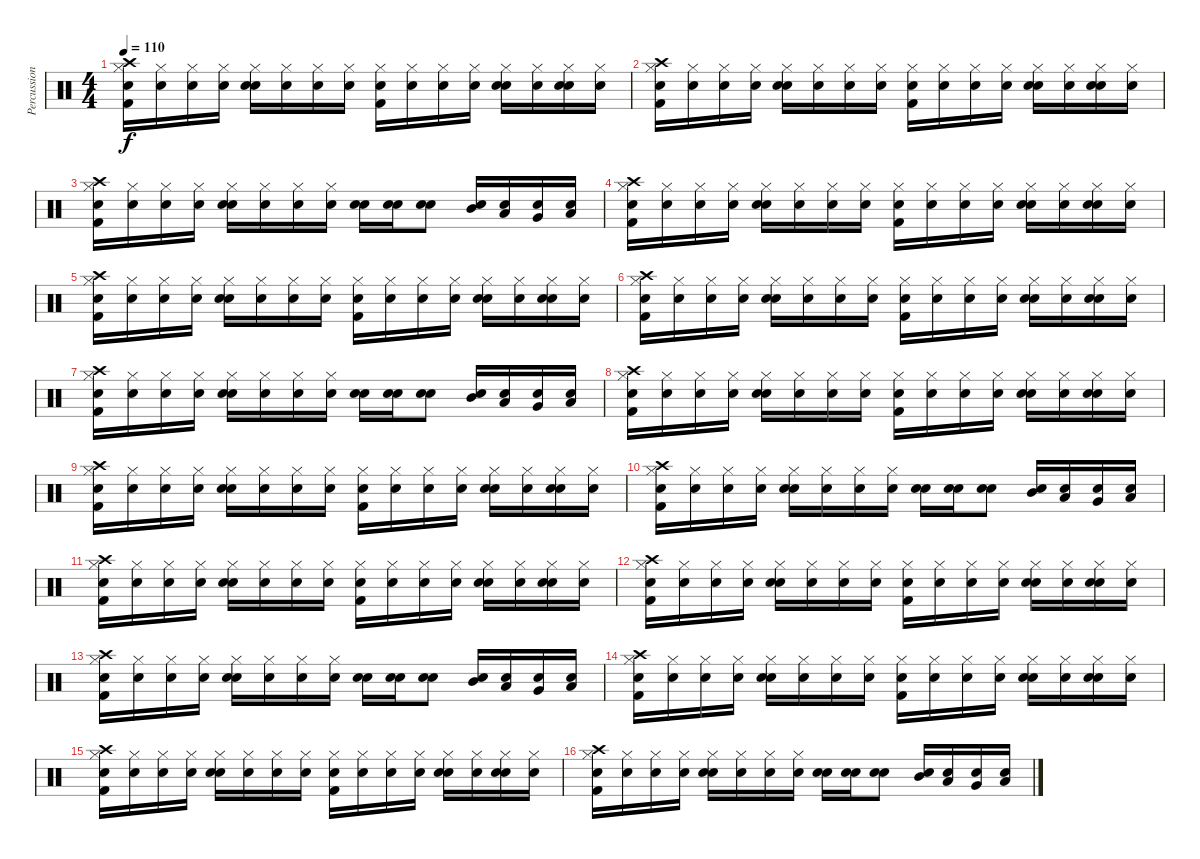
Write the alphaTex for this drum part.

\track ("Percussion" "Percussion") {instrument percussion}
\staff {score}
\articulation defaults
\ts (4 4)
\tempo 110
\clef neutral
\ks c
("Snare (hit)" "Kick (hit) 2" "Hi-Hat (closed)" "Crash high (hit)").16{dy f} ("Snare (hit)" "Hi-Hat (closed)").16 ("Snare (hit)" "Hi-Hat (closed)").16 ("Snare (hit)" "Hi-Hat (closed)").16 ("Snare (hit)" "Snare (hit) 2" "Hi-Hat (closed)").16 ("Snare (hit)" "Hi-Hat (closed)").16 ("Snare (hit)" "Hi-Hat (closed)").16 ("Snare (hit)" "Hi-Hat (closed)").16 ("Snare (hit)" "Kick (hit) 2" "Hi-Hat (closed)").16 ("Snare (hit)" "Hi-Hat (closed)").16 ("Snare (hit)" "Hi-Hat (closed)").16 ("Snare (hit)" "Hi-Hat (closed)").16 ("Snare (hit)" "Snare (hit) 2" "Hi-Hat (closed)").16 ("Snare (hit)" "Hi-Hat (closed)").16 ("Snare (hit)" "Snare (hit) 2" "Hi-Hat (closed)").16 ("Snare (hit)" "Hi-Hat (closed)").16 |
("Snare (hit)" "Kick (hit) 2" "Hi-Hat (closed)" "Crash high (hit)").16 ("Snare (hit)" "Hi-Hat (closed)").16 ("Snare (hit)" "Hi-Hat (closed)").16 ("Snare (hit)" "Hi-Hat (closed)").16 ("Snare (hit)" "Snare (hit) 2" "Hi-Hat (closed)").16 ("Snare (hit)" "Hi-Hat (closed)").16 ("Snare (hit)" "Hi-Hat (closed)").16 ("Snare (hit)" "Hi-Hat (closed)").16 ("Snare (hit)" "Kick (hit) 2" "Hi-Hat (closed)").16 ("Snare (hit)" "Hi-Hat (closed)").16 ("Snare (hit)" "Hi-Hat (closed)").16 ("Snare (hit)" "Hi-Hat (closed)").16 ("Snare (hit)" "Snare (hit) 2" "Hi-Hat (closed)").16 ("Snare (hit)" "Hi-Hat (closed)").16 ("Snare (hit)" "Snare (hit) 2" "Hi-Hat (closed)").16 ("Snare (hit)" "Hi-Hat (closed)").16 |
("Snare (hit)" "Kick (hit) 2" "Hi-Hat (closed)" "Crash high (hit)").16 ("Snare (hit)" "Hi-Hat (closed)").16 ("Snare (hit)" "Hi-Hat (closed)").16 ("Snare (hit)" "Hi-Hat (closed)").16 ("Snare (hit)" "Snare (hit) 2" "Hi-Hat (closed)").16 ("Snare (hit)" "Hi-Hat (closed)").16 ("Snare (hit)" "Hi-Hat (closed)").16 ("Snare (hit)" "Hi-Hat (closed)").16 ("Snare (hit)" "Snare (hit) 2").16 ("Snare (hit)" "Snare (hit) 2").16 ("Snare (hit)" "Snare (hit) 2").8 ("Snare (hit)" "Mid Tom (hit)").16 ("Snare (hit)" "Low Tom (hit)").16 ("Snare (hit)" "Very Low Tom (hit)").16 ("Snare (hit)" "Low Floor Tom (hit)").16 |
("Snare (hit)" "Kick (hit) 2" "Hi-Hat (closed)" "Crash high (hit)").16 ("Snare (hit)" "Hi-Hat (closed)").16 ("Snare (hit)" "Hi-Hat (closed)").16 ("Snare (hit)" "Hi-Hat (closed)").16 ("Snare (hit)" "Snare (hit) 2" "Hi-Hat (closed)").16 ("Snare (hit)" "Hi-Hat (closed)").16 ("Snare (hit)" "Hi-Hat (closed)").16 ("Snare (hit)" "Hi-Hat (closed)").16 ("Snare (hit)" "Kick (hit) 2" "Hi-Hat (closed)").16 ("Snare (hit)" "Hi-Hat (closed)").16 ("Snare (hit)" "Hi-Hat (closed)").16 ("Snare (hit)" "Hi-Hat (closed)").16 ("Snare (hit)" "Snare (hit) 2" "Hi-Hat (closed)").16 ("Snare (hit)" "Hi-Hat (closed)").16 ("Snare (hit)" "Snare (hit) 2" "Hi-Hat (closed)").16 ("Snare (hit)" "Hi-Hat (closed)").16 |
("Snare (hit)" "Kick (hit) 2" "Hi-Hat (closed)" "Crash high (hit)").16 ("Snare (hit)" "Hi-Hat (closed)").16 ("Snare (hit)" "Hi-Hat (closed)").16 ("Snare (hit)" "Hi-Hat (closed)").16 ("Snare (hit)" "Snare (hit) 2" "Hi-Hat (closed)").16 ("Snare (hit)" "Hi-Hat (closed)").16 ("Snare (hit)" "Hi-Hat (closed)").16 ("Snare (hit)" "Hi-Hat (closed)").16 ("Snare (hit)" "Kick (hit) 2" "Hi-Hat (closed)").16 ("Snare (hit)" "Hi-Hat (closed)").16 ("Snare (hit)" "Hi-Hat (closed)").16 ("Snare (hit)" "Hi-Hat (closed)").16 ("Snare (hit)" "Snare (hit) 2" "Hi-Hat (closed)").16 ("Snare (hit)" "Hi-Hat (closed)").16 ("Snare (hit)" "Snare (hit) 2" "Hi-Hat (closed)").16 ("Snare (hit)" "Hi-Hat (closed)").16 |
("Snare (hit)" "Kick (hit) 2" "Hi-Hat (closed)" "Crash high (hit)").16 ("Snare (hit)" "Hi-Hat (closed)").16 ("Snare (hit)" "Hi-Hat (closed)").16 ("Snare (hit)" "Hi-Hat (closed)").16 ("Snare (hit)" "Snare (hit) 2" "Hi-Hat (closed)").16 ("Snare (hit)" "Hi-Hat (closed)").16 ("Snare (hit)" "Hi-Hat (closed)").16 ("Snare (hit)" "Hi-Hat (closed)").16 ("Snare (hit)" "Kick (hit) 2" "Hi-Hat (closed)").16 ("Snare (hit)" "Hi-Hat (closed)").16 ("Snare (hit)" "Hi-Hat (closed)").16 ("Snare (hit)" "Hi-Hat (closed)").16 ("Snare (hit)" "Snare (hit) 2" "Hi-Hat (closed)").16 ("Snare (hit)" "Hi-Hat (closed)").16 ("Snare (hit)" "Snare (hit) 2" "Hi-Hat (closed)").16 ("Snare (hit)" "Hi-Hat (closed)").16 |
("Snare (hit)" "Kick (hit) 2" "Hi-Hat (closed)" "Crash high (hit)").16 ("Snare (hit)" "Hi-Hat (closed)").16 ("Snare (hit)" "Hi-Hat (closed)").16 ("Snare (hit)" "Hi-Hat (closed)").16 ("Snare (hit)" "Snare (hit) 2" "Hi-Hat (closed)").16 ("Snare (hit)" "Hi-Hat (closed)").16 ("Snare (hit)" "Hi-Hat (closed)").16 ("Snare (hit)" "Hi-Hat (closed)").16 ("Snare (hit)" "Snare (hit) 2").16 ("Snare (hit)" "Snare (hit) 2").16 ("Snare (hit)" "Snare (hit) 2").8 ("Snare (hit)" "Mid Tom (hit)").16 ("Snare (hit)" "Low Tom (hit)").16 ("Snare (hit)" "Very Low Tom (hit)").16 ("Snare (hit)" "Low Floor Tom (hit)").16 |
("Snare (hit)" "Kick (hit) 2" "Hi-Hat (closed)" "Crash high (hit)").16 ("Snare (hit)" "Hi-Hat (closed)").16 ("Snare (hit)" "Hi-Hat (closed)").16 ("Snare (hit)" "Hi-Hat (closed)").16 ("Snare (hit)" "Snare (hit) 2" "Hi-Hat (closed)").16 ("Snare (hit)" "Hi-Hat (closed)").16 ("Snare (hit)" "Hi-Hat (closed)").16 ("Snare (hit)" "Hi-Hat (closed)").16 ("Snare (hit)" "Kick (hit) 2" "Hi-Hat (closed)").16 ("Snare (hit)" "Hi-Hat (closed)").16 ("Snare (hit)" "Hi-Hat (closed)").16 ("Snare (hit)" "Hi-Hat (closed)").16 ("Snare (hit)" "Snare (hit) 2" "Hi-Hat (closed)").16 ("Snare (hit)" "Hi-Hat (closed)").16 ("Snare (hit)" "Snare (hit) 2" "Hi-Hat (closed)").16 ("Snare (hit)" "Hi-Hat (closed)").16 |
("Snare (hit)" "Kick (hit) 2" "Hi-Hat (closed)" "Crash high (hit)").16 ("Snare (hit)" "Hi-Hat (closed)").16 ("Snare (hit)" "Hi-Hat (closed)").16 ("Snare (hit)" "Hi-Hat (closed)").16 ("Snare (hit)" "Snare (hit) 2" "Hi-Hat (closed)").16 ("Snare (hit)" "Hi-Hat (closed)").16 ("Snare (hit)" "Hi-Hat (closed)").16 ("Snare (hit)" "Hi-Hat (closed)").16 ("Snare (hit)" "Kick (hit) 2" "Hi-Hat (closed)").16 ("Snare (hit)" "Hi-Hat (closed)").16 ("Snare (hit)" "Hi-Hat (closed)").16 ("Snare (hit)" "Hi-Hat (closed)").16 ("Snare (hit)" "Snare (hit) 2" "Hi-Hat (closed)").16 ("Snare (hit)" "Hi-Hat (closed)").16 ("Snare (hit)" "Snare (hit) 2" "Hi-Hat (closed)").16 ("Snare (hit)" "Hi-Hat (closed)").16 |
("Snare (hit)" "Kick (hit) 2" "Hi-Hat (closed)" "Crash high (hit)").16 ("Snare (hit)" "Hi-Hat (closed)").16 ("Snare (hit)" "Hi-Hat (closed)").16 ("Snare (hit)" "Hi-Hat (closed)").16 ("Snare (hit)" "Snare (hit) 2" "Hi-Hat (closed)").16 ("Snare (hit)" "Hi-Hat (closed)").16 ("Snare (hit)" "Hi-Hat (closed)").16 ("Snare (hit)" "Hi-Hat (closed)").16 ("Snare (hit)" "Snare (hit) 2").16 ("Snare (hit)" "Snare (hit) 2").16 ("Snare (hit)" "Snare (hit) 2").8 ("Snare (hit)" "Mid Tom (hit)").16 ("Snare (hit)" "Low Tom (hit)").16 ("Snare (hit)" "Very Low Tom (hit)").16 ("Snare (hit)" "Low Floor Tom (hit)").16 |
("Snare (hit)" "Kick (hit) 2" "Hi-Hat (closed)" "Crash high (hit)").16 ("Snare (hit)" "Hi-Hat (closed)").16 ("Snare (hit)" "Hi-Hat (closed)").16 ("Snare (hit)" "Hi-Hat (closed)").16 ("Snare (hit)" "Snare (hit) 2" "Hi-Hat (closed)").16 ("Snare (hit)" "Hi-Hat (closed)").16 ("Snare (hit)" "Hi-Hat (closed)").16 ("Snare (hit)" "Hi-Hat (closed)").16 ("Snare (hit)" "Kick (hit) 2" "Hi-Hat (closed)").16 ("Snare (hit)" "Hi-Hat (closed)").16 ("Snare (hit)" "Hi-Hat (closed)").16 ("Snare (hit)" "Hi-Hat (closed)").16 ("Snare (hit)" "Snare (hit) 2" "Hi-Hat (closed)").16 ("Snare (hit)" "Hi-Hat (closed)").16 ("Snare (hit)" "Snare (hit) 2" "Hi-Hat (closed)").16 ("Snare (hit)" "Hi-Hat (closed)").16 |
("Snare (hit)" "Kick (hit) 2" "Hi-Hat (closed)" "Crash high (hit)").16 ("Snare (hit)" "Hi-Hat (closed)").16 ("Snare (hit)" "Hi-Hat (closed)").16 ("Snare (hit)" "Hi-Hat (closed)").16 ("Snare (hit)" "Snare (hit) 2" "Hi-Hat (closed)").16 ("Snare (hit)" "Hi-Hat (closed)").16 ("Snare (hit)" "Hi-Hat (closed)").16 ("Snare (hit)" "Hi-Hat (closed)").16 ("Snare (hit)" "Kick (hit) 2" "Hi-Hat (closed)").16 ("Snare (hit)" "Hi-Hat (closed)").16 ("Snare (hit)" "Hi-Hat (closed)").16 ("Snare (hit)" "Hi-Hat (closed)").16 ("Snare (hit)" "Snare (hit) 2" "Hi-Hat (closed)").16 ("Snare (hit)" "Hi-Hat (closed)").16 ("Snare (hit)" "Snare (hit) 2" "Hi-Hat (closed)").16 ("Snare (hit)" "Hi-Hat (closed)").16 |
("Snare (hit)" "Kick (hit) 2" "Hi-Hat (closed)" "Crash high (hit)").16 ("Snare (hit)" "Hi-Hat (closed)").16 ("Snare (hit)" "Hi-Hat (closed)").16 ("Snare (hit)" "Hi-Hat (closed)").16 ("Snare (hit)" "Snare (hit) 2" "Hi-Hat (closed)").16 ("Snare (hit)" "Hi-Hat (closed)").16 ("Snare (hit)" "Hi-Hat (closed)").16 ("Snare (hit)" "Hi-Hat (closed)").16 ("Snare (hit)" "Snare (hit) 2").16 ("Snare (hit)" "Snare (hit) 2").16 ("Snare (hit)" "Snare (hit) 2").8 ("Snare (hit)" "Mid Tom (hit)").16 ("Snare (hit)" "Low Tom (hit)").16 ("Snare (hit)" "Very Low Tom (hit)").16 ("Snare (hit)" "Low Floor Tom (hit)").16 |
("Snare (hit)" "Kick (hit) 2" "Hi-Hat (closed)" "Crash high (hit)").16 ("Snare (hit)" "Hi-Hat (closed)").16 ("Snare (hit)" "Hi-Hat (closed)").16 ("Snare (hit)" "Hi-Hat (closed)").16 ("Snare (hit)" "Snare (hit) 2" "Hi-Hat (closed)").16 ("Snare (hit)" "Hi-Hat (closed)").16 ("Snare (hit)" "Hi-Hat (closed)").16 ("Snare (hit)" "Hi-Hat (closed)").16 ("Snare (hit)" "Kick (hit) 2" "Hi-Hat (closed)").16 ("Snare (hit)" "Hi-Hat (closed)").16 ("Snare (hit)" "Hi-Hat (closed)").16 ("Snare (hit)" "Hi-Hat (closed)").16 ("Snare (hit)" "Snare (hit) 2" "Hi-Hat (closed)").16 ("Snare (hit)" "Hi-Hat (closed)").16 ("Snare (hit)" "Snare (hit) 2" "Hi-Hat (closed)").16 ("Snare (hit)" "Hi-Hat (closed)").16 |
("Snare (hit)" "Kick (hit) 2" "Hi-Hat (closed)" "Crash high (hit)").16 ("Snare (hit)" "Hi-Hat (closed)").16 ("Snare (hit)" "Hi-Hat (closed)").16 ("Snare (hit)" "Hi-Hat (closed)").16 ("Snare (hit)" "Snare (hit) 2" "Hi-Hat (closed)").16 ("Snare (hit)" "Hi-Hat (closed)").16 ("Snare (hit)" "Hi-Hat (closed)").16 ("Snare (hit)" "Hi-Hat (closed)").16 ("Snare (hit)" "Kick (hit) 2" "Hi-Hat (closed)").16 ("Snare (hit)" "Hi-Hat (closed)").16 ("Snare (hit)" "Hi-Hat (closed)").16 ("Snare (hit)" "Hi-Hat (closed)").16 ("Snare (hit)" "Snare (hit) 2" "Hi-Hat (closed)").16 ("Snare (hit)" "Hi-Hat (closed)").16 ("Snare (hit)" "Snare (hit) 2" "Hi-Hat (closed)").16 ("Snare (hit)" "Hi-Hat (closed)").16 |
("Snare (hit)" "Kick (hit) 2" "Hi-Hat (closed)" "Crash high (hit)").16 ("Snare (hit)" "Hi-Hat (closed)").16 ("Snare (hit)" "Hi-Hat (closed)").16 ("Snare (hit)" "Hi-Hat (closed)").16 ("Snare (hit)" "Snare (hit) 2" "Hi-Hat (closed)").16 ("Snare (hit)" "Hi-Hat (closed)").16 ("Snare (hit)" "Hi-Hat (closed)").16 ("Snare (hit)" "Hi-Hat (closed)").16 ("Snare (hit)" "Snare (hit) 2").16 ("Snare (hit)" "Snare (hit) 2").16 ("Snare (hit)" "Snare (hit) 2").8 ("Snare (hit)" "Mid Tom (hit)").16 ("Snare (hit)" "Low Tom (hit)").16 ("Snare (hit)" "Very Low Tom (hit)").16 ("Snare (hit)" "Low Floor Tom (hit)").16
